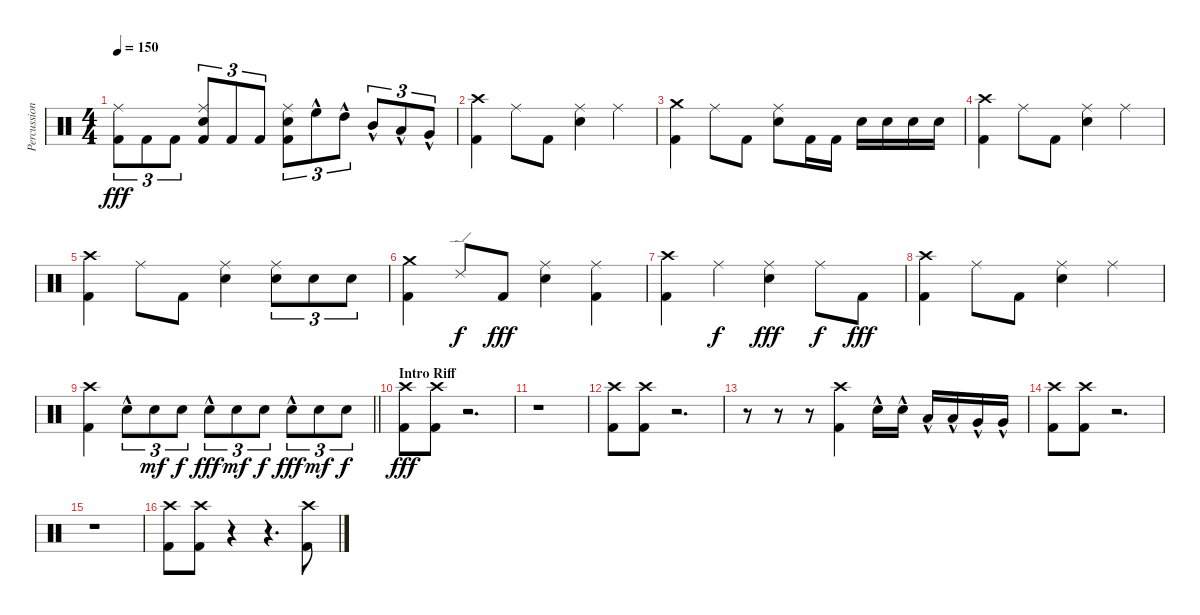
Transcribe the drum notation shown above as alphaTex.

\track ("Percussion" "Percussion") {instrument percussion}
\staff {score}
\articulation defaults
\ts (4 4)
\tempo 150
\clef neutral
\ks c
("Kick (hit) 2" "Ride (middle)").8{tu (3 2) dy fff} "Kick (hit) 2".8{tu (3 2)} "Kick (hit) 2".8{tu (3 2)} ("Kick (hit) 2" "Snare (hit) 2" "Ride (middle)").8{tu (3 2)} "Kick (hit) 2".8{tu (3 2)} "Kick (hit) 2".8{tu (3 2)} ("Kick (hit) 2" "Ride (middle)" "Snare (hit) 2").8{tu (3 2)} "High Floor Tom (hit)"{hac}.8{tu (3 2)} "High Tom (hit)"{hac}.8{tu (3 2)} "Mid Tom (hit)"{hac}.8{tu (3 2)} "Low Tom (hit)"{hac}.8{tu (3 2)} "Very Low Tom (hit)"{hac}.8{tu (3 2)} |
("Kick (hit) 2" "Crash high (hit)").4 "Ride (middle)".8 "Kick (hit) 2".8 ("Snare (hit) 2" "Ride (middle)").4 "Ride (middle)".4 |
("Kick (hit) 2" "Crash medium (hit)").4 "Ride (middle)".8 "Kick (hit) 2".8 ("Snare (hit) 2" "Ride (middle)").8 "Kick (hit) 2".16 "Kick (hit) 2".16 "Snare (hit) 2".16 "Snare (hit) 2".16 "Snare (hit) 2".16 "Snare (hit) 2".16 |
("Crash high (hit)" "Kick (hit) 2").4 "Ride (middle)".8 "Kick (hit) 2".8 ("Ride (middle)" "Snare (hit) 2").4 "Ride (middle)".4 |
("Crash high (hit)" "Kick (hit) 2").4 "Ride (middle)".8 "Kick (hit) 2".8 ("Snare (hit) 2" "Ride (middle)").4 ("Snare (hit) 2" "Ride (middle)").8{tu (3 2)} "Snare (hit) 2".8{tu (3 2)} "Snare (hit) 2".8{tu (3 2)} |
("Crash medium (hit)" "Kick (hit) 2").4 "Ride (edge) 2".8{dy f} "Kick (hit) 2".8{dy fff} ("Snare (hit) 2" "Ride (middle)").4 ("Ride (middle)" "Kick (hit) 2").4 |
("Crash high (hit)" "Kick (hit) 2").4 "Ride (middle)".4{dy f} ("Snare (hit) 2" "Ride (middle)").4{dy fff} "Ride (middle)".8{dy f} "Kick (hit) 2".8{dy fff} |
("Crash high (hit)" "Kick (hit) 2").4 "Ride (middle)".8 "Kick (hit) 2".8 ("Ride (middle)" "Snare (hit) 2").4 "Ride (middle)".4 |
\barLineRight lightlight
("Kick (hit) 2" "Crash high (hit)").4 "Snare (hit) 2"{hac}.8{tu (3 2)} "Snare (hit) 2".8{tu (3 2) dy mf} "Snare (hit) 2".8{tu (3 2) dy f} "Snare (hit) 2"{hac}.8{tu (3 2) dy fff} "Snare (hit) 2".8{tu (3 2) dy mf} "Snare (hit) 2".8{tu (3 2) dy f} "Snare (hit) 2"{hac}.8{tu (3 2) dy fff} "Snare (hit) 2".8{tu (3 2) dy mf} "Snare (hit) 2".8{tu (3 2) dy f} |
\section ("" "Intro Riff")
("Crash high (hit)" "Kick (hit) 2").8{dy fff} ("Kick (hit) 2" "Crash high (hit)").8 r.2{d} |
r.1 |
("Kick (hit) 2" "Crash high (hit)").8 ("Kick (hit) 2" "Crash high (hit)").8 r.2{d} |
r.8 r.8 r.8 ("Kick (hit) 2" "Crash high (hit)").4 "Electric Snare (hit)"{hac}.16 "Electric Snare (hit)"{hac}.16 "Low Tom (hit)"{hac}.16 "Low Tom (hit)"{hac}.16 "Very Low Tom (hit)"{hac}.16 "Very Low Tom (hit)"{hac}.16 |
("Kick (hit) 2" "Crash high (hit)").8 ("Kick (hit) 2" "Crash high (hit)").8 r.2{d} |
r.1 |
("Kick (hit) 2" "Crash high (hit)").8 ("Kick (hit) 2" "Crash high (hit)").8 r.4 r.4{d} ("Kick (hit) 2" "Crash high (hit)").8
